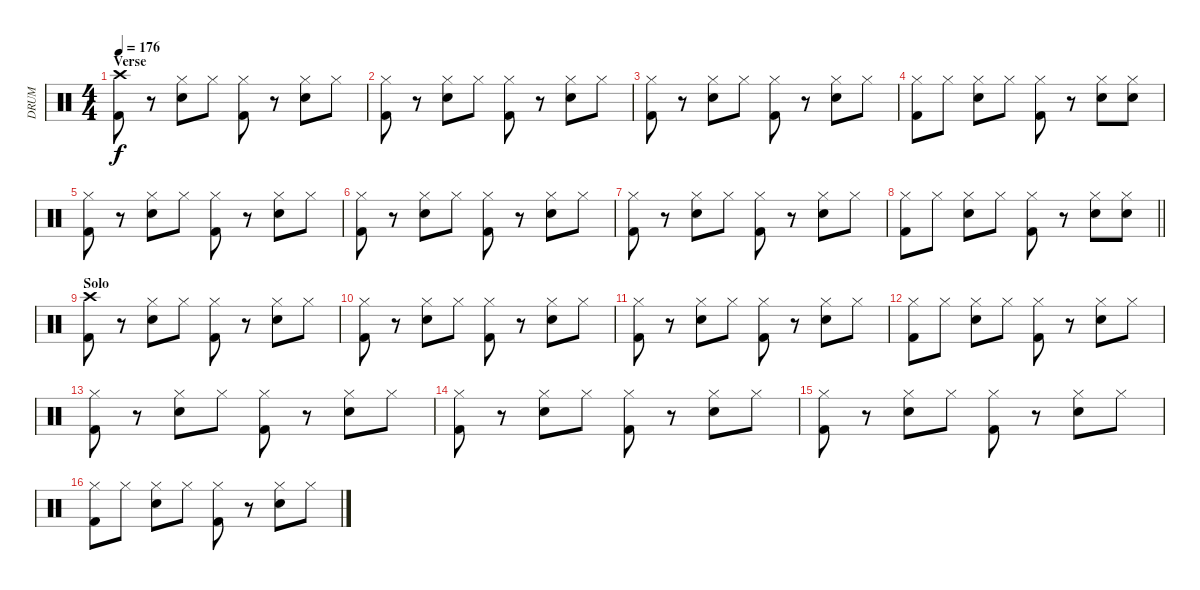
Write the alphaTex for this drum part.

\track ("DRUM" "DRUM") {instrument percussion}
\staff {score}
\articulation defaults
\ts (4 4)
\section ("" "Verse")
\tempo 176
\clef neutral
\ks c
("Crash high (hit)" "Kick (hit) 2").8{dy f} r.8 ("Hi-Hat (closed)" "Electric Snare (hit)").8 "Hi-Hat (closed)".8 ("Hi-Hat (closed)" "Kick (hit) 2").8 r.8 ("Hi-Hat (closed)" "Electric Snare (hit)").8 "Hi-Hat (closed)".8 |
("Hi-Hat (closed)" "Kick (hit) 2").8 r.8 ("Hi-Hat (closed)" "Electric Snare (hit)").8 "Hi-Hat (closed)".8 ("Hi-Hat (closed)" "Kick (hit) 2").8 r.8 ("Hi-Hat (closed)" "Electric Snare (hit)").8 "Hi-Hat (closed)".8 |
("Hi-Hat (closed)" "Kick (hit) 2").8 r.8 ("Hi-Hat (closed)" "Electric Snare (hit)").8 "Hi-Hat (closed)".8 ("Hi-Hat (closed)" "Kick (hit) 2").8 r.8 ("Hi-Hat (closed)" "Electric Snare (hit)").8 "Hi-Hat (closed)".8 |
("Hi-Hat (closed)" "Kick (hit) 2").8 "Hi-Hat (closed)".8 ("Hi-Hat (closed)" "Electric Snare (hit)").8 "Hi-Hat (closed)".8 ("Hi-Hat (closed)" "Kick (hit) 2").8 r.8 ("Hi-Hat (closed)" "Electric Snare (hit)").8 ("Hi-Hat (closed)" "Electric Snare (hit)").8 |
("Hi-Hat (closed)" "Kick (hit) 2").8 r.8 ("Hi-Hat (closed)" "Electric Snare (hit)").8 "Hi-Hat (closed)".8 ("Hi-Hat (closed)" "Kick (hit) 2").8 r.8 ("Hi-Hat (closed)" "Electric Snare (hit)").8 "Hi-Hat (closed)".8 |
("Hi-Hat (closed)" "Kick (hit) 2").8 r.8 ("Hi-Hat (closed)" "Electric Snare (hit)").8 "Hi-Hat (closed)".8 ("Hi-Hat (closed)" "Kick (hit) 2").8 r.8 ("Hi-Hat (closed)" "Electric Snare (hit)").8 "Hi-Hat (closed)".8 |
("Hi-Hat (closed)" "Kick (hit) 2").8 r.8 ("Hi-Hat (closed)" "Electric Snare (hit)").8 "Hi-Hat (closed)".8 ("Hi-Hat (closed)" "Kick (hit) 2").8 r.8 ("Hi-Hat (closed)" "Electric Snare (hit)").8 "Hi-Hat (closed)".8 |
\barLineRight lightlight
("Hi-Hat (closed)" "Kick (hit) 2").8 "Hi-Hat (closed)".8 ("Hi-Hat (closed)" "Electric Snare (hit)").8 "Hi-Hat (closed)".8 ("Hi-Hat (closed)" "Kick (hit) 2").8 r.8 ("Hi-Hat (closed)" "Electric Snare (hit)").8 ("Hi-Hat (closed)" "Electric Snare (hit)").8 |
\section ("" "Solo")
("Crash high (hit)" "Kick (hit) 2").8 r.8 ("Hi-Hat (closed)" "Electric Snare (hit)").8 "Hi-Hat (closed)".8 ("Hi-Hat (closed)" "Kick (hit) 2").8 r.8 ("Hi-Hat (closed)" "Electric Snare (hit)").8 "Hi-Hat (closed)".8 |
("Hi-Hat (closed)" "Kick (hit) 2").8 r.8 ("Hi-Hat (closed)" "Electric Snare (hit)").8 "Hi-Hat (closed)".8 ("Hi-Hat (closed)" "Kick (hit) 2").8 r.8 ("Hi-Hat (closed)" "Electric Snare (hit)").8 "Hi-Hat (closed)".8 |
("Hi-Hat (closed)" "Kick (hit) 2").8 r.8 ("Hi-Hat (closed)" "Electric Snare (hit)").8 "Hi-Hat (closed)".8 ("Hi-Hat (closed)" "Kick (hit) 2").8 r.8 ("Hi-Hat (closed)" "Electric Snare (hit)").8 "Hi-Hat (closed)".8 |
("Hi-Hat (closed)" "Kick (hit) 2").8 "Hi-Hat (closed)".8 ("Hi-Hat (closed)" "Electric Snare (hit)").8 "Hi-Hat (closed)".8 ("Hi-Hat (closed)" "Kick (hit) 2").8 r.8 ("Hi-Hat (closed)" "Electric Snare (hit)").8 "Hi-Hat (closed)".8 |
("Hi-Hat (closed)" "Kick (hit) 2").8 r.8 ("Hi-Hat (closed)" "Electric Snare (hit)").8 "Hi-Hat (closed)".8 ("Hi-Hat (closed)" "Kick (hit) 2").8 r.8 ("Hi-Hat (closed)" "Electric Snare (hit)").8 "Hi-Hat (closed)".8 |
("Hi-Hat (closed)" "Kick (hit) 2").8 r.8 ("Hi-Hat (closed)" "Electric Snare (hit)").8 "Hi-Hat (closed)".8 ("Hi-Hat (closed)" "Kick (hit) 2").8 r.8 ("Hi-Hat (closed)" "Electric Snare (hit)").8 "Hi-Hat (closed)".8 |
("Hi-Hat (closed)" "Kick (hit) 2").8 r.8 ("Hi-Hat (closed)" "Electric Snare (hit)").8 "Hi-Hat (closed)".8 ("Hi-Hat (closed)" "Kick (hit) 2").8 r.8 ("Hi-Hat (closed)" "Electric Snare (hit)").8 "Hi-Hat (closed)".8 |
("Hi-Hat (closed)" "Kick (hit) 2").8 "Hi-Hat (closed)".8 ("Hi-Hat (closed)" "Electric Snare (hit)").8 "Hi-Hat (closed)".8 ("Hi-Hat (closed)" "Kick (hit) 2").8 r.8 ("Hi-Hat (closed)" "Electric Snare (hit)").8 "Hi-Hat (closed)".8
